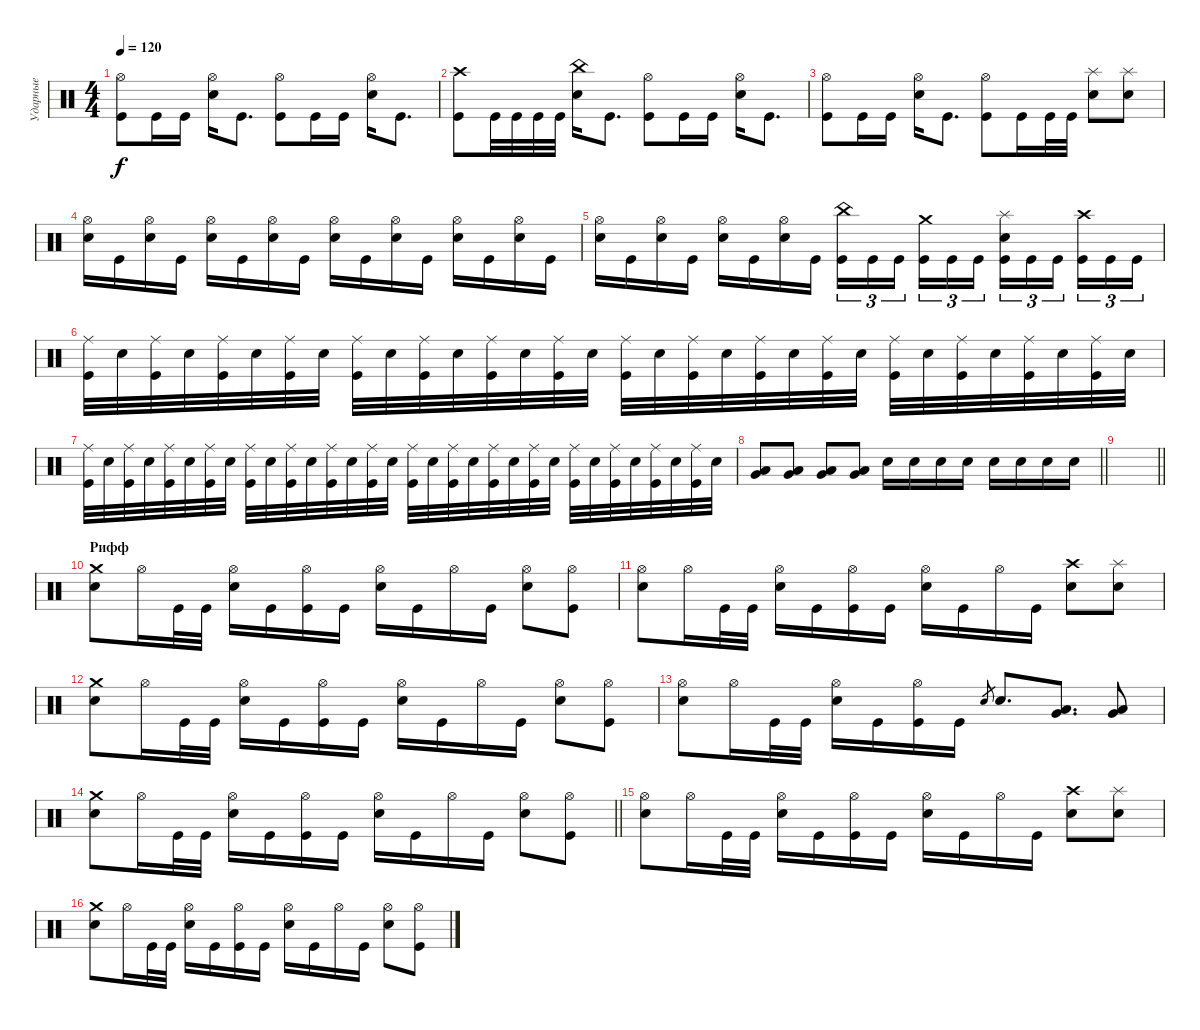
\track ("Ударные" "Ударные") {instrument percussion}
\staff {score}
\articulation defaults
\ts (4 4)
\tempo 120
\clef neutral
\ks c
("Hi-Hat (open)" "Kick (hit)").8{dy f} "Kick (hit)".16 "Kick (hit)".16 ("Hi-Hat (open)" "Electric Snare (hit)").16 "Kick (hit)".8{d} ("Hi-Hat (open)" "Kick (hit)").8 "Kick (hit)".16 "Kick (hit)".16 ("Hi-Hat (open)" "Electric Snare (hit)").16 "Kick (hit)".8{d} |
("Crash high (hit)" "Kick (hit)").8 "Kick (hit)".32 "Kick (hit)".32 "Kick (hit)".32 "Kick (hit)".32 ("China (hit)" "Electric Snare (hit)").16 "Kick (hit)".8{d} ("Hi-Hat (open)" "Kick (hit)").8 "Kick (hit)".16 "Kick (hit)".16 ("Hi-Hat (open)" "Electric Snare (hit)").16 "Kick (hit)".8{d} |
("Hi-Hat (open)" "Kick (hit)").8 "Kick (hit)".16 "Kick (hit)".16 ("Hi-Hat (open)" "Electric Snare (hit)").16 "Kick (hit)".8{d} ("Hi-Hat (open)" "Kick (hit)").8 "Kick (hit)".16 "Kick (hit)".32 "Kick (hit)".32 ("Splash (hit)" "Electric Snare (hit)").8 ("Splash (hit)" "Electric Snare (hit)").8 |
("Hi-Hat (open)" "Electric Snare (hit)").16 "Kick (hit)".16 ("Hi-Hat (open)" "Electric Snare (hit)").16 "Kick (hit)".16 ("Hi-Hat (open)" "Electric Snare (hit)").16 "Kick (hit)".16 ("Hi-Hat (open)" "Electric Snare (hit)").16 "Kick (hit)".16 ("Hi-Hat (open)" "Electric Snare (hit)").16 "Kick (hit)".16 ("Hi-Hat (open)" "Electric Snare (hit)").16 "Kick (hit)".16 ("Hi-Hat (open)" "Electric Snare (hit)").16 "Kick (hit)".16 ("Hi-Hat (open)" "Electric Snare (hit)").16 "Kick (hit)".16 |
("Hi-Hat (open)" "Electric Snare (hit)").16 "Kick (hit)".16 ("Hi-Hat (open)" "Electric Snare (hit)").16 "Kick (hit)".16 ("Hi-Hat (open)" "Electric Snare (hit)").16 "Kick (hit)".16 ("Hi-Hat (open)" "Electric Snare (hit)").16 "Kick (hit)".16 ("China (hit)" "Kick (hit)").16{tu (3 2)} "Kick (hit)".16{tu (3 2)} "Kick (hit)".16{tu (3 2) beam splitsecondary} ("Crash medium (hit)" "Kick (hit)").16{tu (3 2)} "Kick (hit)".16{tu (3 2)} "Kick (hit)".16{tu (3 2)} ("Splash (hit)" "Electric Snare (hit)" "Kick (hit)").16{tu (3 2)} "Kick (hit)".16{tu (3 2)} "Kick (hit)".16{tu (3 2) beam splitsecondary} ("Crash high (hit)" "Kick (hit)").16{tu (3 2)} "Kick (hit)".16{tu (3 2)} "Kick (hit)".16{tu (3 2)} |
("Ride (middle)" "Kick (hit)").32 "Electric Snare (hit)".32 ("Ride (middle)" "Kick (hit)").32 "Electric Snare (hit)".32 ("Ride (middle)" "Kick (hit)").32 "Electric Snare (hit)".32 ("Ride (middle)" "Kick (hit)").32 "Electric Snare (hit)".32 ("Ride (middle)" "Kick (hit)").32 "Electric Snare (hit)".32 ("Ride (middle)" "Kick (hit)").32 "Electric Snare (hit)".32 ("Ride (middle)" "Kick (hit)").32 "Electric Snare (hit)".32 ("Ride (middle)" "Kick (hit)").32 "Electric Snare (hit)".32 ("Ride (middle)" "Kick (hit)").32 "Electric Snare (hit)".32 ("Ride (middle)" "Kick (hit)").32 "Electric Snare (hit)".32 ("Ride (middle)" "Kick (hit)").32 "Electric Snare (hit)".32 ("Ride (middle)" "Kick (hit)").32 "Electric Snare (hit)".32 ("Ride (middle)" "Kick (hit)").32 "Electric Snare (hit)".32 ("Ride (middle)" "Kick (hit)").32 "Electric Snare (hit)".32 ("Ride (middle)" "Kick (hit)").32 "Electric Snare (hit)".32 ("Ride (middle)" "Kick (hit)").32 "Electric Snare (hit)".32 |
("Ride (middle)" "Kick (hit)").32 "Electric Snare (hit)".32 ("Ride (middle)" "Kick (hit)").32 "Electric Snare (hit)".32 ("Ride (middle)" "Kick (hit)").32 "Electric Snare (hit)".32 ("Ride (middle)" "Kick (hit)").32 "Electric Snare (hit)".32 ("Ride (middle)" "Kick (hit)").32 "Electric Snare (hit)".32 ("Ride (middle)" "Kick (hit)").32 "Electric Snare (hit)".32 ("Ride (middle)" "Kick (hit)").32 "Electric Snare (hit)".32 ("Ride (middle)" "Kick (hit)").32 "Electric Snare (hit)".32 ("Ride (middle)" "Kick (hit)").32 "Electric Snare (hit)".32 ("Ride (middle)" "Kick (hit)").32 "Electric Snare (hit)".32 ("Ride (middle)" "Kick (hit)").32 "Electric Snare (hit)".32 ("Ride (middle)" "Kick (hit)").32 "Electric Snare (hit)".32 ("Ride (middle)" "Kick (hit)").32 "Electric Snare (hit)".32 ("Ride (middle)" "Kick (hit)").32 "Electric Snare (hit)".32 ("Ride (middle)" "Kick (hit)").32 "Electric Snare (hit)".32 ("Ride (middle)" "Kick (hit)").32 "Electric Snare (hit)".32 |
\barLineRight lightlight
("Very Low Tom (hit)" "Low Floor Tom (hit)").8 ("Very Low Tom (hit)" "Low Floor Tom (hit)").8 ("Very Low Tom (hit)" "Low Floor Tom (hit)").8 ("Very Low Tom (hit)" "Low Floor Tom (hit)").8 "Electric Snare (hit)".16 "Electric Snare (hit)".16 "Electric Snare (hit)".16 "Electric Snare (hit)".16 "Electric Snare (hit)".16 "Electric Snare (hit)".16 "Electric Snare (hit)".16 "Electric Snare (hit)".16 |
\barLineRight lightlight
|
\section ("" "Рифф")
("Crash medium (hit)" "Electric Snare (hit)").8 "Hi-Hat (open)".16 "Kick (hit)".32 "Kick (hit)".32 ("Hi-Hat (open)" "Electric Snare (hit)").16 "Kick (hit)".16 ("Hi-Hat (open)" "Kick (hit)").16 "Kick (hit)".16 ("Hi-Hat (open)" "Electric Snare (hit)").16 "Kick (hit)".16 "Hi-Hat (open)".16 "Kick (hit)".16 ("Hi-Hat (open)" "Electric Snare (hit)").8 ("Hi-Hat (open)" "Kick (hit)").8 |
("Hi-Hat (open)" "Electric Snare (hit)").8 "Hi-Hat (open)".16 "Kick (hit)".32 "Kick (hit)".32 ("Hi-Hat (open)" "Electric Snare (hit)").16 "Kick (hit)".16 ("Hi-Hat (open)" "Kick (hit)").16 "Kick (hit)".16 ("Hi-Hat (open)" "Electric Snare (hit)").16 "Kick (hit)".16 "Hi-Hat (open)".16 "Kick (hit)".16 ("Crash high (hit)" "Electric Snare (hit)").8 ("Splash (hit)" "Electric Snare (hit)").8 |
("Crash medium (hit)" "Electric Snare (hit)").8 "Hi-Hat (open)".16 "Kick (hit)".32 "Kick (hit)".32 ("Hi-Hat (open)" "Electric Snare (hit)").16 "Kick (hit)".16 ("Hi-Hat (open)" "Kick (hit)").16 "Kick (hit)".16 ("Hi-Hat (open)" "Electric Snare (hit)").16 "Kick (hit)".16 "Hi-Hat (open)".16 "Kick (hit)".16 ("Hi-Hat (open)" "Electric Snare (hit)").8 ("Hi-Hat (open)" "Kick (hit)").8 |
("Hi-Hat (open)" "Electric Snare (hit)").8 "Hi-Hat (open)".16 "Kick (hit)".32 "Kick (hit)".32 ("Hi-Hat (open)" "Electric Snare (hit)").16 "Kick (hit)".16 ("Hi-Hat (open)" "Kick (hit)").16 "Kick (hit)".16 "Electric Snare (hit)".8{gr} "Electric Snare (hit)".8{d} ("Very Low Tom (hit)" "Low Floor Tom (hit)").8{d} ("Very Low Tom (hit)" "Low Floor Tom (hit)").8 |
\barLineRight lightlight
("Crash medium (hit)" "Electric Snare (hit)").8 "Hi-Hat (open)".16 "Kick (hit)".32 "Kick (hit)".32 ("Hi-Hat (open)" "Electric Snare (hit)").16 "Kick (hit)".16 ("Hi-Hat (open)" "Kick (hit)").16 "Kick (hit)".16 ("Hi-Hat (open)" "Electric Snare (hit)").16 "Kick (hit)".16 "Hi-Hat (open)".16 "Kick (hit)".16 ("Hi-Hat (open)" "Electric Snare (hit)").8 ("Hi-Hat (open)" "Kick (hit)").8 |
("Hi-Hat (open)" "Electric Snare (hit)").8 "Hi-Hat (open)".16 "Kick (hit)".32 "Kick (hit)".32 ("Hi-Hat (open)" "Electric Snare (hit)").16 "Kick (hit)".16 ("Hi-Hat (open)" "Kick (hit)").16 "Kick (hit)".16 ("Hi-Hat (open)" "Electric Snare (hit)").16 "Kick (hit)".16 "Hi-Hat (open)".16 "Kick (hit)".16 ("Crash high (hit)" "Electric Snare (hit)").8 ("Splash (hit)" "Electric Snare (hit)").8 |
("Crash medium (hit)" "Electric Snare (hit)").8 "Hi-Hat (open)".16 "Kick (hit)".32 "Kick (hit)".32 ("Hi-Hat (open)" "Electric Snare (hit)").16 "Kick (hit)".16 ("Hi-Hat (open)" "Kick (hit)").16 "Kick (hit)".16 ("Hi-Hat (open)" "Electric Snare (hit)").16 "Kick (hit)".16 "Hi-Hat (open)".16 "Kick (hit)".16 ("Hi-Hat (open)" "Electric Snare (hit)").8 ("Hi-Hat (open)" "Kick (hit)").8
